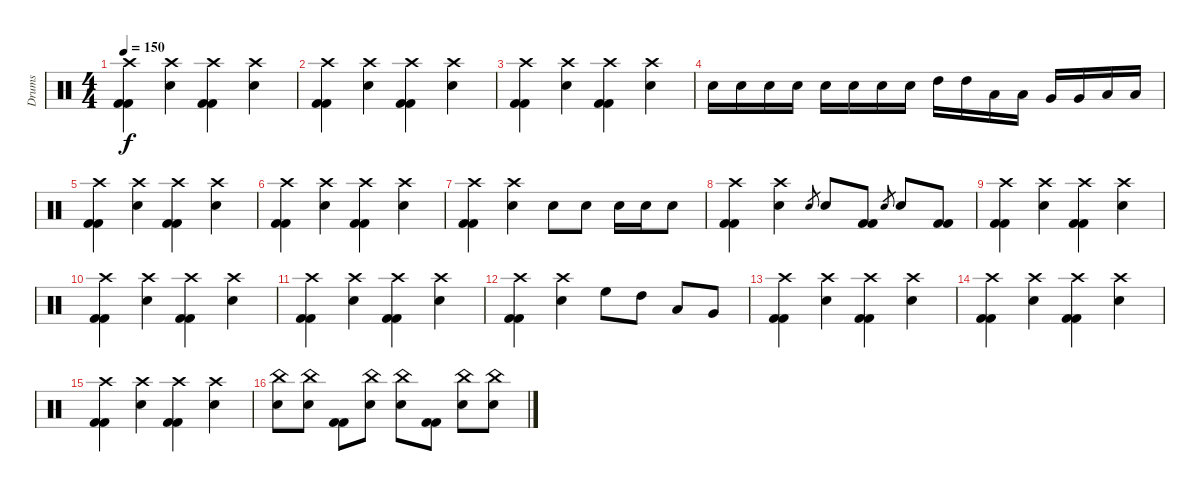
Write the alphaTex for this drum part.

\track ("Drums" "Drums") {instrument percussion}
\staff {score}
\articulation defaults
\ts (4 4)
\tempo 150
\clef neutral
\ks c
("Crash high (hit)" "Kick (hit) 2" "Kick (hit) 2").4{dy f} ("Electric Snare (hit)" "Crash high (hit)").4 ("Crash high (hit)" "Kick (hit) 2" "Kick (hit) 2").4 ("Electric Snare (hit)" "Crash high (hit)").4 |
("Crash high (hit)" "Kick (hit) 2" "Kick (hit) 2").4 ("Electric Snare (hit)" "Crash high (hit)").4 ("Crash high (hit)" "Kick (hit) 2" "Kick (hit) 2").4 ("Electric Snare (hit)" "Crash high (hit)").4 |
("Crash high (hit)" "Kick (hit) 2" "Kick (hit) 2").4 ("Electric Snare (hit)" "Crash high (hit)").4 ("Crash high (hit)" "Kick (hit) 2" "Kick (hit) 2").4 ("Electric Snare (hit)" "Crash high (hit)").4 |
"Electric Snare (hit)".16 "Electric Snare (hit)".16 "Electric Snare (hit)".16 "Electric Snare (hit)".16 "Electric Snare (hit)".16 "Electric Snare (hit)".16 "Electric Snare (hit)".16 "Electric Snare (hit)".16 "High Tom (hit)".16 "High Tom (hit)".16 "Low Tom (hit)".16 "Low Tom (hit)".16 "Very Low Tom (hit)".16 "Very Low Tom (hit)".16 "Low Floor Tom (hit)".16 "Low Floor Tom (hit)".16 |
("Crash high (hit)" "Kick (hit) 2" "Kick (hit) 2").4 ("Electric Snare (hit)" "Crash high (hit)").4 ("Crash high (hit)" "Kick (hit) 2" "Kick (hit) 2").4 ("Electric Snare (hit)" "Crash high (hit)").4 |
("Crash high (hit)" "Kick (hit) 2" "Kick (hit) 2").4 ("Electric Snare (hit)" "Crash high (hit)").4 ("Crash high (hit)" "Kick (hit) 2" "Kick (hit) 2").4 ("Electric Snare (hit)" "Crash high (hit)").4 |
("Crash high (hit)" "Kick (hit) 2" "Kick (hit) 2").4 ("Electric Snare (hit)" "Crash high (hit)").4 "Electric Snare (hit)".8 "Electric Snare (hit)".8 "Electric Snare (hit)".16 "Electric Snare (hit)".16 "Electric Snare (hit)".8 |
("Crash high (hit)" "Kick (hit) 2" "Kick (hit) 2").4 ("Electric Snare (hit)" "Crash high (hit)").4 "Electric Snare (hit)".8{gr} "Electric Snare (hit)".8 ("Kick (hit) 2" "Kick (hit) 2").8 "Electric Snare (hit)".8{gr} "Electric Snare (hit)".8 ("Kick (hit) 2" "Kick (hit) 2").8 |
("Crash high (hit)" "Kick (hit) 2" "Kick (hit) 2").4 ("Electric Snare (hit)" "Crash high (hit)").4 ("Crash high (hit)" "Kick (hit) 2" "Kick (hit) 2").4 ("Electric Snare (hit)" "Crash high (hit)").4 |
("Crash high (hit)" "Kick (hit) 2" "Kick (hit) 2").4 ("Electric Snare (hit)" "Crash high (hit)").4 ("Crash high (hit)" "Kick (hit) 2" "Kick (hit) 2").4 ("Electric Snare (hit)" "Crash high (hit)").4 |
("Crash high (hit)" "Kick (hit) 2" "Kick (hit) 2").4 ("Electric Snare (hit)" "Crash high (hit)").4 ("Crash high (hit)" "Kick (hit) 2" "Kick (hit) 2").4 ("Electric Snare (hit)" "Crash high (hit)").4 |
("Crash high (hit)" "Kick (hit) 2" "Kick (hit) 2").4 ("Electric Snare (hit)" "Crash high (hit)").4 "High Floor Tom (hit)".8 "High Tom (hit)".8 "Low Tom (hit)".8 "Very Low Tom (hit)".8 |
("Crash high (hit)" "Kick (hit) 2" "Kick (hit) 2").4 ("Electric Snare (hit)" "Crash high (hit)").4 ("Crash high (hit)" "Kick (hit) 2" "Kick (hit) 2").4 ("Electric Snare (hit)" "Crash high (hit)").4 |
("Crash high (hit)" "Kick (hit) 2" "Kick (hit) 2").4 ("Electric Snare (hit)" "Crash high (hit)").4 ("Crash high (hit)" "Kick (hit) 2" "Kick (hit) 2").4 ("Electric Snare (hit)" "Crash high (hit)").4 |
("Crash high (hit)" "Kick (hit) 2" "Kick (hit) 2").4 ("Electric Snare (hit)" "Crash high (hit)").4 ("Crash high (hit)" "Kick (hit) 2" "Kick (hit) 2").4 ("Electric Snare (hit)" "Crash high (hit)").4 |
("China (hit)" "Electric Snare (hit)").8 ("Electric Snare (hit)" "China (hit)").8 ("Kick (hit) 2" "Kick (hit) 2").8 ("China (hit)" "Electric Snare (hit)").8 ("China (hit)" "Electric Snare (hit)").8 ("Kick (hit) 2" "Kick (hit) 2").8 ("China (hit)" "Electric Snare (hit)").8 ("Electric Snare (hit)" "China (hit)").8
